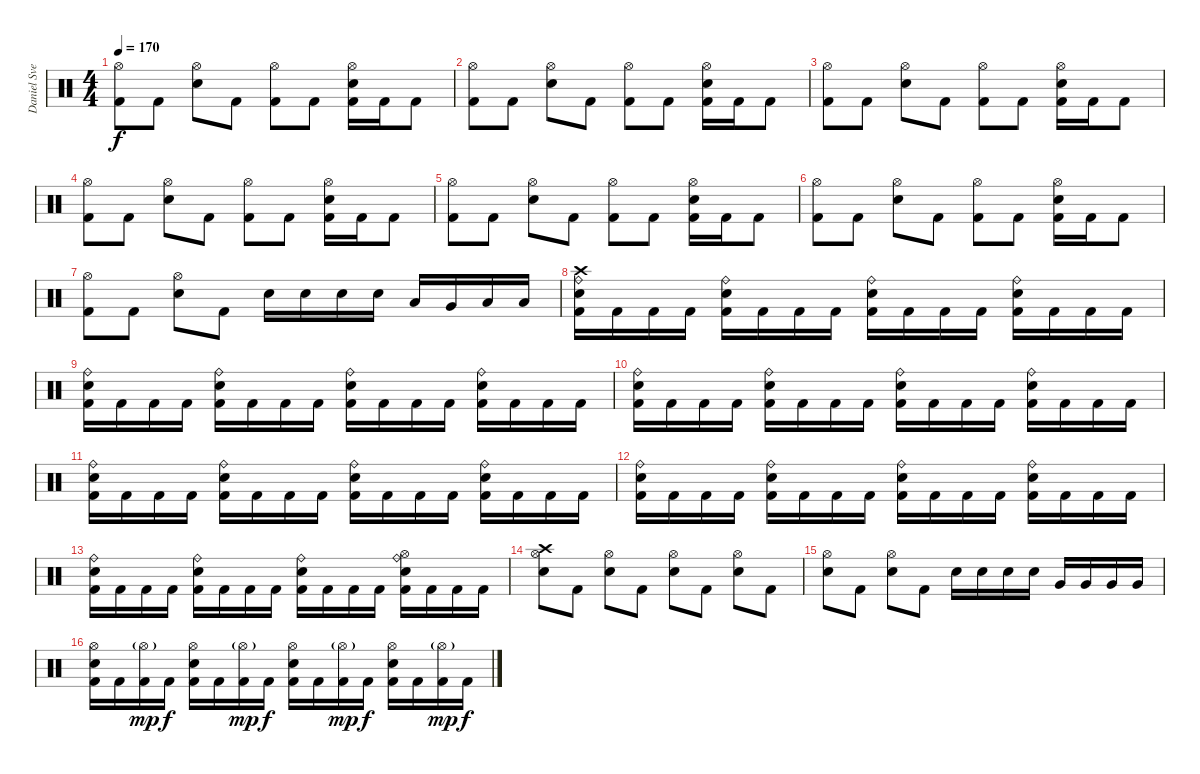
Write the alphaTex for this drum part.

\track ("Daniel Svensson" "Daniel Sve") {instrument percussion}
\staff {score}
\articulation defaults
\ts (4 4)
\tempo 170
\clef neutral
\ks c
("Hi-Hat (open)" "Kick (hit) 2").8{dy f} "Kick (hit) 2".8 ("Hi-Hat (open)" "Electric Snare (hit)").8 "Kick (hit) 2".8 ("Hi-Hat (open)" "Kick (hit) 2").8 "Kick (hit) 2".8 ("Hi-Hat (open)" "Electric Snare (hit)" "Kick (hit) 2").16 "Kick (hit) 2".16 "Kick (hit) 2".8 |
("Hi-Hat (open)" "Kick (hit) 2").8 "Kick (hit) 2".8 ("Hi-Hat (open)" "Electric Snare (hit)").8 "Kick (hit) 2".8 ("Hi-Hat (open)" "Kick (hit) 2").8 "Kick (hit) 2".8 ("Hi-Hat (open)" "Electric Snare (hit)" "Kick (hit) 2").16 "Kick (hit) 2".16 "Kick (hit) 2".8 |
("Hi-Hat (open)" "Kick (hit) 2").8 "Kick (hit) 2".8 ("Hi-Hat (open)" "Electric Snare (hit)").8 "Kick (hit) 2".8 ("Hi-Hat (open)" "Kick (hit) 2").8 "Kick (hit) 2".8 ("Hi-Hat (open)" "Electric Snare (hit)" "Kick (hit) 2").16 "Kick (hit) 2".16 "Kick (hit) 2".8 |
("Hi-Hat (open)" "Kick (hit) 2").8 "Kick (hit) 2".8 ("Hi-Hat (open)" "Electric Snare (hit)").8 "Kick (hit) 2".8 ("Hi-Hat (open)" "Kick (hit) 2").8 "Kick (hit) 2".8 ("Hi-Hat (open)" "Electric Snare (hit)" "Kick (hit) 2").16 "Kick (hit) 2".16 "Kick (hit) 2".8 |
("Hi-Hat (open)" "Kick (hit) 2").8 "Kick (hit) 2".8 ("Hi-Hat (open)" "Electric Snare (hit)").8 "Kick (hit) 2".8 ("Hi-Hat (open)" "Kick (hit) 2").8 "Kick (hit) 2".8 ("Hi-Hat (open)" "Electric Snare (hit)" "Kick (hit) 2").16 "Kick (hit) 2".16 "Kick (hit) 2".8 |
("Hi-Hat (open)" "Kick (hit) 2").8 "Kick (hit) 2".8 ("Hi-Hat (open)" "Electric Snare (hit)").8 "Kick (hit) 2".8 ("Hi-Hat (open)" "Kick (hit) 2").8 "Kick (hit) 2".8 ("Hi-Hat (open)" "Electric Snare (hit)" "Kick (hit) 2").16 "Kick (hit) 2".16 "Kick (hit) 2".8 |
("Hi-Hat (open)" "Kick (hit) 2").8 "Kick (hit) 2".8 ("Hi-Hat (open)" "Electric Snare (hit)").8 "Kick (hit) 2".8 "Electric Snare (hit)".16 "Electric Snare (hit)".16 "Electric Snare (hit)".16 "Electric Snare (hit)".16 "Low Tom (hit)".16 "Very Low Tom (hit)".16 "Low Floor Tom (hit)".16 "Low Floor Tom (hit)".16 |
("Ride (bell)" "Crash high (hit)" "Electric Snare (hit)" "Kick (hit) 2").16 "Kick (hit) 2".16 "Kick (hit) 2".16 "Kick (hit) 2".16 ("Ride (bell)" "Electric Snare (hit)" "Kick (hit) 2").16 "Kick (hit) 2".16 "Kick (hit) 2".16 "Kick (hit) 2".16 ("Ride (bell)" "Electric Snare (hit)" "Kick (hit) 2").16 "Kick (hit) 2".16 "Kick (hit) 2".16 "Kick (hit) 2".16 ("Ride (bell)" "Electric Snare (hit)" "Kick (hit) 2").16 "Kick (hit) 2".16 "Kick (hit) 2".16 "Kick (hit) 2".16 |
("Ride (bell)" "Electric Snare (hit)" "Kick (hit) 2").16 "Kick (hit) 2".16 "Kick (hit) 2".16 "Kick (hit) 2".16 ("Ride (bell)" "Electric Snare (hit)" "Kick (hit) 2").16 "Kick (hit) 2".16 "Kick (hit) 2".16 "Kick (hit) 2".16 ("Ride (bell)" "Electric Snare (hit)" "Kick (hit) 2").16 "Kick (hit) 2".16 "Kick (hit) 2".16 "Kick (hit) 2".16 ("Ride (bell)" "Electric Snare (hit)" "Kick (hit) 2").16 "Kick (hit) 2".16 "Kick (hit) 2".16 "Kick (hit) 2".16 |
("Ride (bell)" "Electric Snare (hit)" "Kick (hit) 2").16 "Kick (hit) 2".16 "Kick (hit) 2".16 "Kick (hit) 2".16 ("Ride (bell)" "Electric Snare (hit)" "Kick (hit) 2").16 "Kick (hit) 2".16 "Kick (hit) 2".16 "Kick (hit) 2".16 ("Ride (bell)" "Electric Snare (hit)" "Kick (hit) 2").16 "Kick (hit) 2".16 "Kick (hit) 2".16 "Kick (hit) 2".16 ("Ride (bell)" "Electric Snare (hit)" "Kick (hit) 2").16 "Kick (hit) 2".16 "Kick (hit) 2".16 "Kick (hit) 2".16 |
("Ride (bell)" "Electric Snare (hit)" "Kick (hit) 2").16 "Kick (hit) 2".16 "Kick (hit) 2".16 "Kick (hit) 2".16 ("Ride (bell)" "Electric Snare (hit)" "Kick (hit) 2").16 "Kick (hit) 2".16 "Kick (hit) 2".16 "Kick (hit) 2".16 ("Ride (bell)" "Electric Snare (hit)" "Kick (hit) 2").16 "Kick (hit) 2".16 "Kick (hit) 2".16 "Kick (hit) 2".16 ("Ride (bell)" "Electric Snare (hit)" "Kick (hit) 2").16 "Kick (hit) 2".16 "Kick (hit) 2".16 "Kick (hit) 2".16 |
("Ride (bell)" "Electric Snare (hit)" "Kick (hit) 2").16 "Kick (hit) 2".16 "Kick (hit) 2".16 "Kick (hit) 2".16 ("Ride (bell)" "Electric Snare (hit)" "Kick (hit) 2").16 "Kick (hit) 2".16 "Kick (hit) 2".16 "Kick (hit) 2".16 ("Ride (bell)" "Electric Snare (hit)" "Kick (hit) 2").16 "Kick (hit) 2".16 "Kick (hit) 2".16 "Kick (hit) 2".16 ("Ride (bell)" "Electric Snare (hit)" "Kick (hit) 2").16 "Kick (hit) 2".16 "Kick (hit) 2".16 "Kick (hit) 2".16 |
("Ride (bell)" "Electric Snare (hit)" "Kick (hit) 2").16 "Kick (hit) 2".16 "Kick (hit) 2".16 "Kick (hit) 2".16 ("Ride (bell)" "Electric Snare (hit)" "Kick (hit) 2").16 "Kick (hit) 2".16 "Kick (hit) 2".16 "Kick (hit) 2".16 ("Ride (bell)" "Electric Snare (hit)" "Kick (hit) 2").16 "Kick (hit) 2".16 "Kick (hit) 2".16 "Kick (hit) 2".16 ("Ride (bell)" "Hi-Hat (open)" "Electric Snare (hit)" "Kick (hit) 2").16 "Kick (hit) 2".16 "Kick (hit) 2".16 "Kick (hit) 2".16 |
("Crash high (hit)" "Hi-Hat (open)" "Electric Snare (hit)").8 "Kick (hit) 2".8 ("Hi-Hat (open)" "Electric Snare (hit)").8 "Kick (hit) 2".8 ("Hi-Hat (open)" "Electric Snare (hit)").8 "Kick (hit) 2".8 ("Hi-Hat (open)" "Electric Snare (hit)").8 "Kick (hit) 2".8 |
("Hi-Hat (open)" "Electric Snare (hit)").8 "Kick (hit) 2".8 ("Hi-Hat (open)" "Electric Snare (hit)").8 "Kick (hit) 2".8 "Electric Snare (hit)".16 "Electric Snare (hit)".16 "Electric Snare (hit)".16 "Electric Snare (hit)".16 "Very Low Tom (hit)".16 "Very Low Tom (hit)".16 "Very Low Tom (hit)".16 "Very Low Tom (hit)".16 |
("Hi-Hat (open)" "Electric Snare (hit)" "Kick (hit) 2").16 "Kick (hit) 2".16 ("Hi-Hat (open)"{g} "Kick (hit) 2").16{dy mp} "Kick (hit) 2".16{dy f} ("Hi-Hat (open)" "Electric Snare (hit)" "Kick (hit) 2").16 "Kick (hit) 2".16 ("Hi-Hat (open)"{g} "Kick (hit) 2").16{dy mp} "Kick (hit) 2".16{dy f} ("Hi-Hat (open)" "Electric Snare (hit)" "Kick (hit) 2").16 "Kick (hit) 2".16 ("Hi-Hat (open)"{g} "Kick (hit) 2").16{dy mp} "Kick (hit) 2".16{dy f} ("Hi-Hat (open)" "Electric Snare (hit)" "Kick (hit) 2").16 "Kick (hit) 2".16 ("Hi-Hat (open)"{g} "Kick (hit) 2").16{dy mp} "Kick (hit) 2".16{dy f}
